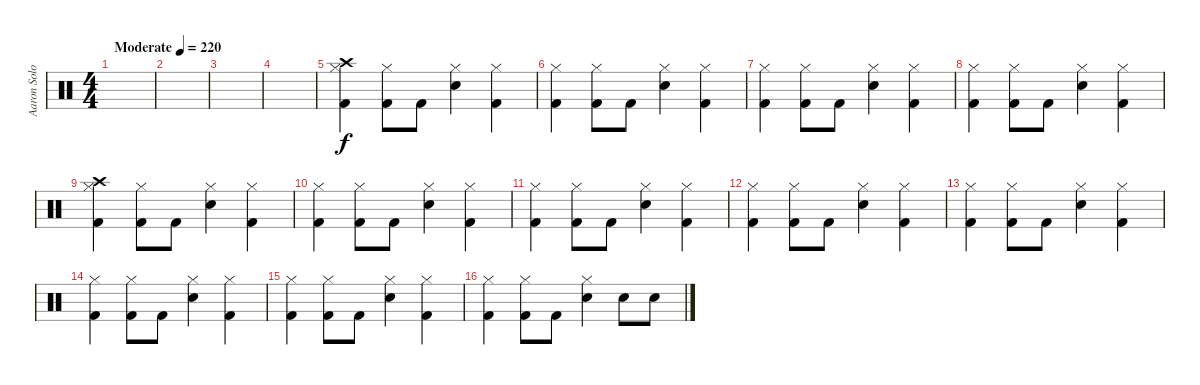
\track ("Aaron Solowoniuk" "Aaron Solo") {instrument percussion}
\staff {score}
\articulation defaults
\ts (4 4)
\tempo (220 "Moderate")
\clef neutral
\ks c
|
|
|
|
("Crash high (hit)" "Hi-Hat (closed)" "Kick (hit) 2").4 ("Hi-Hat (closed)" "Kick (hit) 2").8 "Kick (hit) 2".8 ("Hi-Hat (closed)" "Snare (hit) 2").4 ("Hi-Hat (closed)" "Kick (hit) 2").4 |
("Hi-Hat (closed)" "Kick (hit) 2").4 ("Hi-Hat (closed)" "Kick (hit) 2").8 "Kick (hit) 2".8 ("Hi-Hat (closed)" "Snare (hit) 2").4 ("Hi-Hat (closed)" "Kick (hit) 2").4 |
("Hi-Hat (closed)" "Kick (hit) 2").4 ("Hi-Hat (closed)" "Kick (hit) 2").8 "Kick (hit) 2".8 ("Hi-Hat (closed)" "Snare (hit) 2").4 ("Hi-Hat (closed)" "Kick (hit) 2").4 |
("Hi-Hat (closed)" "Kick (hit) 2").4 ("Hi-Hat (closed)" "Kick (hit) 2").8 "Kick (hit) 2".8 ("Hi-Hat (closed)" "Snare (hit) 2").4 ("Hi-Hat (closed)" "Kick (hit) 2").4 |
("Crash high (hit)" "Hi-Hat (closed)" "Kick (hit) 2").4 ("Hi-Hat (closed)" "Kick (hit) 2").8 "Kick (hit) 2".8 ("Hi-Hat (closed)" "Snare (hit) 2").4 ("Hi-Hat (closed)" "Kick (hit) 2").4 |
("Hi-Hat (closed)" "Kick (hit) 2").4 ("Hi-Hat (closed)" "Kick (hit) 2").8 "Kick (hit) 2".8 ("Hi-Hat (closed)" "Snare (hit) 2").4 ("Hi-Hat (closed)" "Kick (hit) 2").4 |
("Hi-Hat (closed)" "Kick (hit) 2").4 ("Hi-Hat (closed)" "Kick (hit) 2").8 "Kick (hit) 2".8 ("Hi-Hat (closed)" "Snare (hit) 2").4 ("Hi-Hat (closed)" "Kick (hit) 2").4 |
("Hi-Hat (closed)" "Kick (hit) 2").4 ("Hi-Hat (closed)" "Kick (hit) 2").8 "Kick (hit) 2".8 ("Hi-Hat (closed)" "Snare (hit) 2").4 ("Hi-Hat (closed)" "Kick (hit) 2").4 |
("Hi-Hat (closed)" "Kick (hit) 2").4 ("Hi-Hat (closed)" "Kick (hit) 2").8 "Kick (hit) 2".8 ("Hi-Hat (closed)" "Snare (hit) 2").4 ("Hi-Hat (closed)" "Kick (hit) 2").4 |
("Hi-Hat (closed)" "Kick (hit) 2").4 ("Hi-Hat (closed)" "Kick (hit) 2").8 "Kick (hit) 2".8 ("Hi-Hat (closed)" "Snare (hit) 2").4 ("Hi-Hat (closed)" "Kick (hit) 2").4 |
("Hi-Hat (closed)" "Kick (hit) 2").4 ("Hi-Hat (closed)" "Kick (hit) 2").8 "Kick (hit) 2".8 ("Hi-Hat (closed)" "Snare (hit) 2").4 ("Hi-Hat (closed)" "Kick (hit) 2").4 |
("Hi-Hat (closed)" "Kick (hit) 2").4 ("Hi-Hat (closed)" "Kick (hit) 2").8 "Kick (hit) 2".8 ("Hi-Hat (closed)" "Snare (hit) 2").4 "Snare (hit) 2".8 "Snare (hit) 2".8
